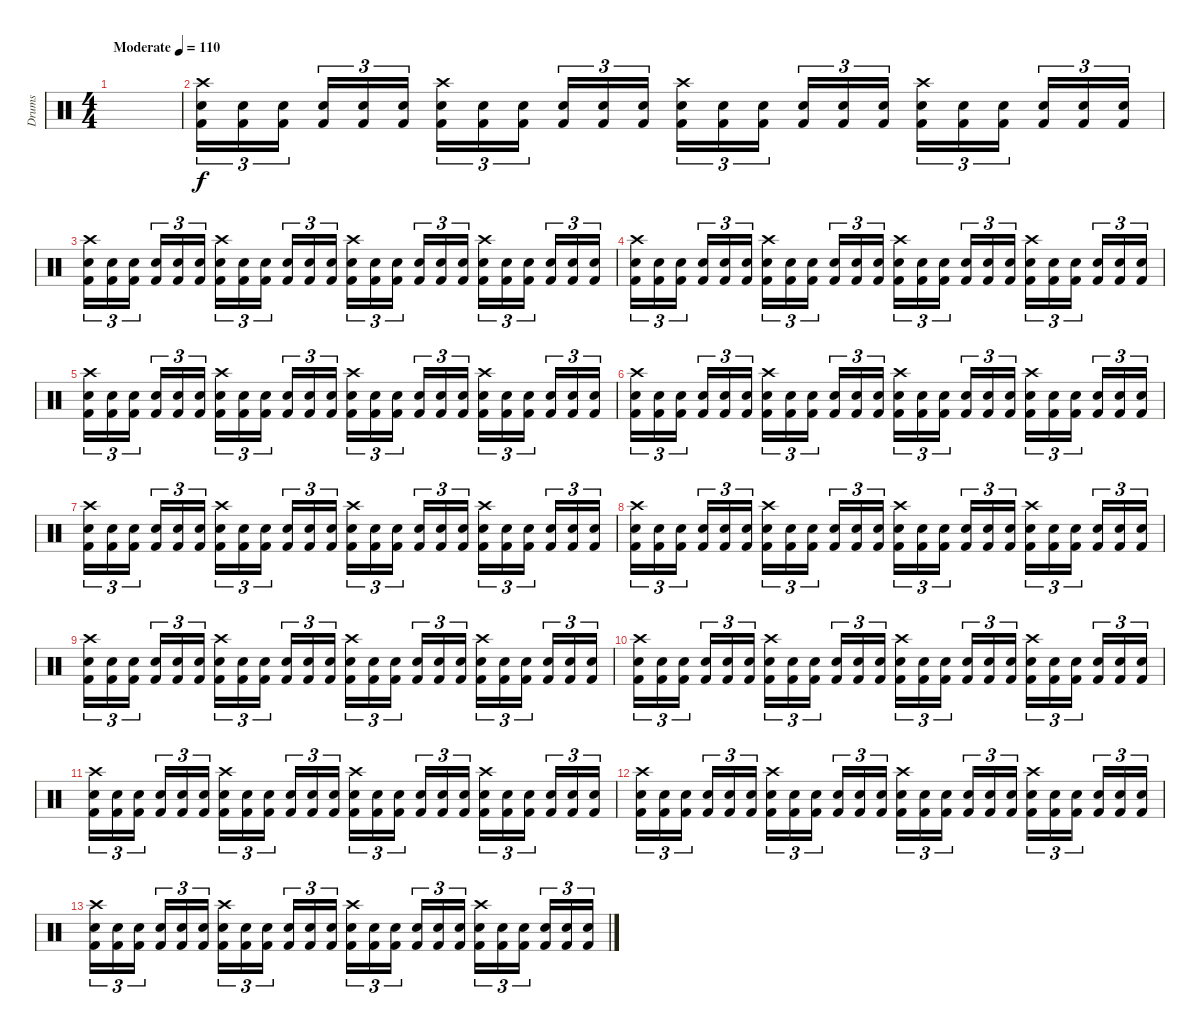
\track ("Drums" "Drums") {instrument percussion}
\staff {score}
\articulation defaults
\ts (4 4)
\tempo (110 "Moderate")
\clef neutral
\ks c
|
("Crash high (hit)" "Electric Snare (hit)" "Kick (hit) 2").16{tu (3 2)} ("Electric Snare (hit)" "Kick (hit) 2").16{tu (3 2)} ("Electric Snare (hit)" "Kick (hit) 2").16{tu (3 2) beam splitsecondary} ("Electric Snare (hit)" "Kick (hit) 2").16{tu (3 2)} ("Electric Snare (hit)" "Kick (hit) 2").16{tu (3 2)} ("Electric Snare (hit)" "Kick (hit) 2").16{tu (3 2)} ("Crash high (hit)" "Electric Snare (hit)" "Kick (hit) 2").16{tu (3 2)} ("Electric Snare (hit)" "Kick (hit) 2").16{tu (3 2)} ("Electric Snare (hit)" "Kick (hit) 2").16{tu (3 2) beam splitsecondary} ("Electric Snare (hit)" "Kick (hit) 2").16{tu (3 2)} ("Electric Snare (hit)" "Kick (hit) 2").16{tu (3 2)} ("Electric Snare (hit)" "Kick (hit) 2").16{tu (3 2)} ("Crash high (hit)" "Electric Snare (hit)" "Kick (hit) 2").16{tu (3 2)} ("Electric Snare (hit)" "Kick (hit) 2").16{tu (3 2)} ("Electric Snare (hit)" "Kick (hit) 2").16{tu (3 2) beam splitsecondary} ("Electric Snare (hit)" "Kick (hit) 2").16{tu (3 2)} ("Electric Snare (hit)" "Kick (hit) 2").16{tu (3 2)} ("Electric Snare (hit)" "Kick (hit) 2").16{tu (3 2)} ("Crash high (hit)" "Electric Snare (hit)" "Kick (hit) 2").16{tu (3 2)} ("Electric Snare (hit)" "Kick (hit) 2").16{tu (3 2)} ("Electric Snare (hit)" "Kick (hit) 2").16{tu (3 2) beam splitsecondary} ("Electric Snare (hit)" "Kick (hit) 2").16{tu (3 2)} ("Electric Snare (hit)" "Kick (hit) 2").16{tu (3 2)} ("Electric Snare (hit)" "Kick (hit) 2").16{tu (3 2)} |
("Crash high (hit)" "Electric Snare (hit)" "Kick (hit) 2").16{tu (3 2)} ("Electric Snare (hit)" "Kick (hit) 2").16{tu (3 2)} ("Electric Snare (hit)" "Kick (hit) 2").16{tu (3 2) beam splitsecondary} ("Electric Snare (hit)" "Kick (hit) 2").16{tu (3 2)} ("Electric Snare (hit)" "Kick (hit) 2").16{tu (3 2)} ("Electric Snare (hit)" "Kick (hit) 2").16{tu (3 2)} ("Crash high (hit)" "Electric Snare (hit)" "Kick (hit) 2").16{tu (3 2)} ("Electric Snare (hit)" "Kick (hit) 2").16{tu (3 2)} ("Electric Snare (hit)" "Kick (hit) 2").16{tu (3 2) beam splitsecondary} ("Electric Snare (hit)" "Kick (hit) 2").16{tu (3 2)} ("Electric Snare (hit)" "Kick (hit) 2").16{tu (3 2)} ("Electric Snare (hit)" "Kick (hit) 2").16{tu (3 2)} ("Crash high (hit)" "Electric Snare (hit)" "Kick (hit) 2").16{tu (3 2)} ("Electric Snare (hit)" "Kick (hit) 2").16{tu (3 2)} ("Electric Snare (hit)" "Kick (hit) 2").16{tu (3 2) beam splitsecondary} ("Electric Snare (hit)" "Kick (hit) 2").16{tu (3 2)} ("Electric Snare (hit)" "Kick (hit) 2").16{tu (3 2)} ("Electric Snare (hit)" "Kick (hit) 2").16{tu (3 2)} ("Crash high (hit)" "Electric Snare (hit)" "Kick (hit) 2").16{tu (3 2)} ("Electric Snare (hit)" "Kick (hit) 2").16{tu (3 2)} ("Electric Snare (hit)" "Kick (hit) 2").16{tu (3 2) beam splitsecondary} ("Electric Snare (hit)" "Kick (hit) 2").16{tu (3 2)} ("Electric Snare (hit)" "Kick (hit) 2").16{tu (3 2)} ("Electric Snare (hit)" "Kick (hit) 2").16{tu (3 2)} |
("Crash high (hit)" "Electric Snare (hit)" "Kick (hit) 2").16{tu (3 2)} ("Electric Snare (hit)" "Kick (hit) 2").16{tu (3 2)} ("Electric Snare (hit)" "Kick (hit) 2").16{tu (3 2) beam splitsecondary} ("Electric Snare (hit)" "Kick (hit) 2").16{tu (3 2)} ("Electric Snare (hit)" "Kick (hit) 2").16{tu (3 2)} ("Electric Snare (hit)" "Kick (hit) 2").16{tu (3 2)} ("Crash high (hit)" "Electric Snare (hit)" "Kick (hit) 2").16{tu (3 2)} ("Electric Snare (hit)" "Kick (hit) 2").16{tu (3 2)} ("Electric Snare (hit)" "Kick (hit) 2").16{tu (3 2) beam splitsecondary} ("Electric Snare (hit)" "Kick (hit) 2").16{tu (3 2)} ("Electric Snare (hit)" "Kick (hit) 2").16{tu (3 2)} ("Electric Snare (hit)" "Kick (hit) 2").16{tu (3 2)} ("Crash high (hit)" "Electric Snare (hit)" "Kick (hit) 2").16{tu (3 2)} ("Electric Snare (hit)" "Kick (hit) 2").16{tu (3 2)} ("Electric Snare (hit)" "Kick (hit) 2").16{tu (3 2) beam splitsecondary} ("Electric Snare (hit)" "Kick (hit) 2").16{tu (3 2)} ("Electric Snare (hit)" "Kick (hit) 2").16{tu (3 2)} ("Electric Snare (hit)" "Kick (hit) 2").16{tu (3 2)} ("Crash high (hit)" "Electric Snare (hit)" "Kick (hit) 2").16{tu (3 2)} ("Electric Snare (hit)" "Kick (hit) 2").16{tu (3 2)} ("Electric Snare (hit)" "Kick (hit) 2").16{tu (3 2) beam splitsecondary} ("Electric Snare (hit)" "Kick (hit) 2").16{tu (3 2)} ("Electric Snare (hit)" "Kick (hit) 2").16{tu (3 2)} ("Electric Snare (hit)" "Kick (hit) 2").16{tu (3 2)} |
("Crash high (hit)" "Electric Snare (hit)" "Kick (hit) 2").16{tu (3 2)} ("Electric Snare (hit)" "Kick (hit) 2").16{tu (3 2)} ("Electric Snare (hit)" "Kick (hit) 2").16{tu (3 2) beam splitsecondary} ("Electric Snare (hit)" "Kick (hit) 2").16{tu (3 2)} ("Electric Snare (hit)" "Kick (hit) 2").16{tu (3 2)} ("Electric Snare (hit)" "Kick (hit) 2").16{tu (3 2)} ("Crash high (hit)" "Electric Snare (hit)" "Kick (hit) 2").16{tu (3 2)} ("Electric Snare (hit)" "Kick (hit) 2").16{tu (3 2)} ("Electric Snare (hit)" "Kick (hit) 2").16{tu (3 2) beam splitsecondary} ("Electric Snare (hit)" "Kick (hit) 2").16{tu (3 2)} ("Electric Snare (hit)" "Kick (hit) 2").16{tu (3 2)} ("Electric Snare (hit)" "Kick (hit) 2").16{tu (3 2)} ("Crash high (hit)" "Electric Snare (hit)" "Kick (hit) 2").16{tu (3 2)} ("Electric Snare (hit)" "Kick (hit) 2").16{tu (3 2)} ("Electric Snare (hit)" "Kick (hit) 2").16{tu (3 2) beam splitsecondary} ("Electric Snare (hit)" "Kick (hit) 2").16{tu (3 2)} ("Electric Snare (hit)" "Kick (hit) 2").16{tu (3 2)} ("Electric Snare (hit)" "Kick (hit) 2").16{tu (3 2)} ("Crash high (hit)" "Electric Snare (hit)" "Kick (hit) 2").16{tu (3 2)} ("Electric Snare (hit)" "Kick (hit) 2").16{tu (3 2)} ("Electric Snare (hit)" "Kick (hit) 2").16{tu (3 2) beam splitsecondary} ("Electric Snare (hit)" "Kick (hit) 2").16{tu (3 2)} ("Electric Snare (hit)" "Kick (hit) 2").16{tu (3 2)} ("Electric Snare (hit)" "Kick (hit) 2").16{tu (3 2)} |
("Crash high (hit)" "Electric Snare (hit)" "Kick (hit) 2").16{tu (3 2)} ("Electric Snare (hit)" "Kick (hit) 2").16{tu (3 2)} ("Electric Snare (hit)" "Kick (hit) 2").16{tu (3 2) beam splitsecondary} ("Electric Snare (hit)" "Kick (hit) 2").16{tu (3 2)} ("Electric Snare (hit)" "Kick (hit) 2").16{tu (3 2)} ("Electric Snare (hit)" "Kick (hit) 2").16{tu (3 2)} ("Crash high (hit)" "Electric Snare (hit)" "Kick (hit) 2").16{tu (3 2)} ("Electric Snare (hit)" "Kick (hit) 2").16{tu (3 2)} ("Electric Snare (hit)" "Kick (hit) 2").16{tu (3 2) beam splitsecondary} ("Electric Snare (hit)" "Kick (hit) 2").16{tu (3 2)} ("Electric Snare (hit)" "Kick (hit) 2").16{tu (3 2)} ("Electric Snare (hit)" "Kick (hit) 2").16{tu (3 2)} ("Crash high (hit)" "Electric Snare (hit)" "Kick (hit) 2").16{tu (3 2)} ("Electric Snare (hit)" "Kick (hit) 2").16{tu (3 2)} ("Electric Snare (hit)" "Kick (hit) 2").16{tu (3 2) beam splitsecondary} ("Electric Snare (hit)" "Kick (hit) 2").16{tu (3 2)} ("Electric Snare (hit)" "Kick (hit) 2").16{tu (3 2)} ("Electric Snare (hit)" "Kick (hit) 2").16{tu (3 2)} ("Crash high (hit)" "Electric Snare (hit)" "Kick (hit) 2").16{tu (3 2)} ("Electric Snare (hit)" "Kick (hit) 2").16{tu (3 2)} ("Electric Snare (hit)" "Kick (hit) 2").16{tu (3 2) beam splitsecondary} ("Electric Snare (hit)" "Kick (hit) 2").16{tu (3 2)} ("Electric Snare (hit)" "Kick (hit) 2").16{tu (3 2)} ("Electric Snare (hit)" "Kick (hit) 2").16{tu (3 2)} |
("Crash high (hit)" "Electric Snare (hit)" "Kick (hit) 2").16{tu (3 2)} ("Electric Snare (hit)" "Kick (hit) 2").16{tu (3 2)} ("Electric Snare (hit)" "Kick (hit) 2").16{tu (3 2) beam splitsecondary} ("Electric Snare (hit)" "Kick (hit) 2").16{tu (3 2)} ("Electric Snare (hit)" "Kick (hit) 2").16{tu (3 2)} ("Electric Snare (hit)" "Kick (hit) 2").16{tu (3 2)} ("Crash high (hit)" "Electric Snare (hit)" "Kick (hit) 2").16{tu (3 2)} ("Electric Snare (hit)" "Kick (hit) 2").16{tu (3 2)} ("Electric Snare (hit)" "Kick (hit) 2").16{tu (3 2) beam splitsecondary} ("Electric Snare (hit)" "Kick (hit) 2").16{tu (3 2)} ("Electric Snare (hit)" "Kick (hit) 2").16{tu (3 2)} ("Electric Snare (hit)" "Kick (hit) 2").16{tu (3 2)} ("Crash high (hit)" "Electric Snare (hit)" "Kick (hit) 2").16{tu (3 2)} ("Electric Snare (hit)" "Kick (hit) 2").16{tu (3 2)} ("Electric Snare (hit)" "Kick (hit) 2").16{tu (3 2) beam splitsecondary} ("Electric Snare (hit)" "Kick (hit) 2").16{tu (3 2)} ("Electric Snare (hit)" "Kick (hit) 2").16{tu (3 2)} ("Electric Snare (hit)" "Kick (hit) 2").16{tu (3 2)} ("Crash high (hit)" "Electric Snare (hit)" "Kick (hit) 2").16{tu (3 2)} ("Electric Snare (hit)" "Kick (hit) 2").16{tu (3 2)} ("Electric Snare (hit)" "Kick (hit) 2").16{tu (3 2) beam splitsecondary} ("Electric Snare (hit)" "Kick (hit) 2").16{tu (3 2)} ("Electric Snare (hit)" "Kick (hit) 2").16{tu (3 2)} ("Electric Snare (hit)" "Kick (hit) 2").16{tu (3 2)} |
("Crash high (hit)" "Electric Snare (hit)" "Kick (hit) 2").16{tu (3 2)} ("Electric Snare (hit)" "Kick (hit) 2").16{tu (3 2)} ("Electric Snare (hit)" "Kick (hit) 2").16{tu (3 2) beam splitsecondary} ("Electric Snare (hit)" "Kick (hit) 2").16{tu (3 2)} ("Electric Snare (hit)" "Kick (hit) 2").16{tu (3 2)} ("Electric Snare (hit)" "Kick (hit) 2").16{tu (3 2)} ("Crash high (hit)" "Electric Snare (hit)" "Kick (hit) 2").16{tu (3 2)} ("Electric Snare (hit)" "Kick (hit) 2").16{tu (3 2)} ("Electric Snare (hit)" "Kick (hit) 2").16{tu (3 2) beam splitsecondary} ("Electric Snare (hit)" "Kick (hit) 2").16{tu (3 2)} ("Electric Snare (hit)" "Kick (hit) 2").16{tu (3 2)} ("Electric Snare (hit)" "Kick (hit) 2").16{tu (3 2)} ("Crash high (hit)" "Electric Snare (hit)" "Kick (hit) 2").16{tu (3 2)} ("Electric Snare (hit)" "Kick (hit) 2").16{tu (3 2)} ("Electric Snare (hit)" "Kick (hit) 2").16{tu (3 2) beam splitsecondary} ("Electric Snare (hit)" "Kick (hit) 2").16{tu (3 2)} ("Electric Snare (hit)" "Kick (hit) 2").16{tu (3 2)} ("Electric Snare (hit)" "Kick (hit) 2").16{tu (3 2)} ("Crash high (hit)" "Electric Snare (hit)" "Kick (hit) 2").16{tu (3 2)} ("Electric Snare (hit)" "Kick (hit) 2").16{tu (3 2)} ("Electric Snare (hit)" "Kick (hit) 2").16{tu (3 2) beam splitsecondary} ("Electric Snare (hit)" "Kick (hit) 2").16{tu (3 2)} ("Electric Snare (hit)" "Kick (hit) 2").16{tu (3 2)} ("Electric Snare (hit)" "Kick (hit) 2").16{tu (3 2)} |
("Crash high (hit)" "Electric Snare (hit)" "Kick (hit) 2").16{tu (3 2)} ("Electric Snare (hit)" "Kick (hit) 2").16{tu (3 2)} ("Electric Snare (hit)" "Kick (hit) 2").16{tu (3 2) beam splitsecondary} ("Electric Snare (hit)" "Kick (hit) 2").16{tu (3 2)} ("Electric Snare (hit)" "Kick (hit) 2").16{tu (3 2)} ("Electric Snare (hit)" "Kick (hit) 2").16{tu (3 2)} ("Crash high (hit)" "Electric Snare (hit)" "Kick (hit) 2").16{tu (3 2)} ("Electric Snare (hit)" "Kick (hit) 2").16{tu (3 2)} ("Electric Snare (hit)" "Kick (hit) 2").16{tu (3 2) beam splitsecondary} ("Electric Snare (hit)" "Kick (hit) 2").16{tu (3 2)} ("Electric Snare (hit)" "Kick (hit) 2").16{tu (3 2)} ("Electric Snare (hit)" "Kick (hit) 2").16{tu (3 2)} ("Crash high (hit)" "Electric Snare (hit)" "Kick (hit) 2").16{tu (3 2)} ("Electric Snare (hit)" "Kick (hit) 2").16{tu (3 2)} ("Electric Snare (hit)" "Kick (hit) 2").16{tu (3 2) beam splitsecondary} ("Electric Snare (hit)" "Kick (hit) 2").16{tu (3 2)} ("Electric Snare (hit)" "Kick (hit) 2").16{tu (3 2)} ("Electric Snare (hit)" "Kick (hit) 2").16{tu (3 2)} ("Crash high (hit)" "Electric Snare (hit)" "Kick (hit) 2").16{tu (3 2)} ("Electric Snare (hit)" "Kick (hit) 2").16{tu (3 2)} ("Electric Snare (hit)" "Kick (hit) 2").16{tu (3 2) beam splitsecondary} ("Electric Snare (hit)" "Kick (hit) 2").16{tu (3 2)} ("Electric Snare (hit)" "Kick (hit) 2").16{tu (3 2)} ("Electric Snare (hit)" "Kick (hit) 2").16{tu (3 2)} |
("Crash high (hit)" "Electric Snare (hit)" "Kick (hit) 2").16{tu (3 2)} ("Electric Snare (hit)" "Kick (hit) 2").16{tu (3 2)} ("Electric Snare (hit)" "Kick (hit) 2").16{tu (3 2) beam splitsecondary} ("Electric Snare (hit)" "Kick (hit) 2").16{tu (3 2)} ("Electric Snare (hit)" "Kick (hit) 2").16{tu (3 2)} ("Electric Snare (hit)" "Kick (hit) 2").16{tu (3 2)} ("Crash high (hit)" "Electric Snare (hit)" "Kick (hit) 2").16{tu (3 2)} ("Electric Snare (hit)" "Kick (hit) 2").16{tu (3 2)} ("Electric Snare (hit)" "Kick (hit) 2").16{tu (3 2) beam splitsecondary} ("Electric Snare (hit)" "Kick (hit) 2").16{tu (3 2)} ("Electric Snare (hit)" "Kick (hit) 2").16{tu (3 2)} ("Electric Snare (hit)" "Kick (hit) 2").16{tu (3 2)} ("Crash high (hit)" "Electric Snare (hit)" "Kick (hit) 2").16{tu (3 2)} ("Electric Snare (hit)" "Kick (hit) 2").16{tu (3 2)} ("Electric Snare (hit)" "Kick (hit) 2").16{tu (3 2) beam splitsecondary} ("Electric Snare (hit)" "Kick (hit) 2").16{tu (3 2)} ("Electric Snare (hit)" "Kick (hit) 2").16{tu (3 2)} ("Electric Snare (hit)" "Kick (hit) 2").16{tu (3 2)} ("Crash high (hit)" "Electric Snare (hit)" "Kick (hit) 2").16{tu (3 2)} ("Electric Snare (hit)" "Kick (hit) 2").16{tu (3 2)} ("Electric Snare (hit)" "Kick (hit) 2").16{tu (3 2) beam splitsecondary} ("Electric Snare (hit)" "Kick (hit) 2").16{tu (3 2)} ("Electric Snare (hit)" "Kick (hit) 2").16{tu (3 2)} ("Electric Snare (hit)" "Kick (hit) 2").16{tu (3 2)} |
("Crash high (hit)" "Electric Snare (hit)" "Kick (hit) 2").16{tu (3 2)} ("Electric Snare (hit)" "Kick (hit) 2").16{tu (3 2)} ("Electric Snare (hit)" "Kick (hit) 2").16{tu (3 2) beam splitsecondary} ("Electric Snare (hit)" "Kick (hit) 2").16{tu (3 2)} ("Electric Snare (hit)" "Kick (hit) 2").16{tu (3 2)} ("Electric Snare (hit)" "Kick (hit) 2").16{tu (3 2)} ("Crash high (hit)" "Electric Snare (hit)" "Kick (hit) 2").16{tu (3 2)} ("Electric Snare (hit)" "Kick (hit) 2").16{tu (3 2)} ("Electric Snare (hit)" "Kick (hit) 2").16{tu (3 2) beam splitsecondary} ("Electric Snare (hit)" "Kick (hit) 2").16{tu (3 2)} ("Electric Snare (hit)" "Kick (hit) 2").16{tu (3 2)} ("Electric Snare (hit)" "Kick (hit) 2").16{tu (3 2)} ("Crash high (hit)" "Electric Snare (hit)" "Kick (hit) 2").16{tu (3 2)} ("Electric Snare (hit)" "Kick (hit) 2").16{tu (3 2)} ("Electric Snare (hit)" "Kick (hit) 2").16{tu (3 2) beam splitsecondary} ("Electric Snare (hit)" "Kick (hit) 2").16{tu (3 2)} ("Electric Snare (hit)" "Kick (hit) 2").16{tu (3 2)} ("Electric Snare (hit)" "Kick (hit) 2").16{tu (3 2)} ("Crash high (hit)" "Electric Snare (hit)" "Kick (hit) 2").16{tu (3 2)} ("Electric Snare (hit)" "Kick (hit) 2").16{tu (3 2)} ("Electric Snare (hit)" "Kick (hit) 2").16{tu (3 2) beam splitsecondary} ("Electric Snare (hit)" "Kick (hit) 2").16{tu (3 2)} ("Electric Snare (hit)" "Kick (hit) 2").16{tu (3 2)} ("Electric Snare (hit)" "Kick (hit) 2").16{tu (3 2)} |
("Crash high (hit)" "Electric Snare (hit)" "Kick (hit) 2").16{tu (3 2)} ("Electric Snare (hit)" "Kick (hit) 2").16{tu (3 2)} ("Electric Snare (hit)" "Kick (hit) 2").16{tu (3 2) beam splitsecondary} ("Electric Snare (hit)" "Kick (hit) 2").16{tu (3 2)} ("Electric Snare (hit)" "Kick (hit) 2").16{tu (3 2)} ("Electric Snare (hit)" "Kick (hit) 2").16{tu (3 2)} ("Crash high (hit)" "Electric Snare (hit)" "Kick (hit) 2").16{tu (3 2)} ("Electric Snare (hit)" "Kick (hit) 2").16{tu (3 2)} ("Electric Snare (hit)" "Kick (hit) 2").16{tu (3 2) beam splitsecondary} ("Electric Snare (hit)" "Kick (hit) 2").16{tu (3 2)} ("Electric Snare (hit)" "Kick (hit) 2").16{tu (3 2)} ("Electric Snare (hit)" "Kick (hit) 2").16{tu (3 2)} ("Crash high (hit)" "Electric Snare (hit)" "Kick (hit) 2").16{tu (3 2)} ("Electric Snare (hit)" "Kick (hit) 2").16{tu (3 2)} ("Electric Snare (hit)" "Kick (hit) 2").16{tu (3 2) beam splitsecondary} ("Electric Snare (hit)" "Kick (hit) 2").16{tu (3 2)} ("Electric Snare (hit)" "Kick (hit) 2").16{tu (3 2)} ("Electric Snare (hit)" "Kick (hit) 2").16{tu (3 2)} ("Crash high (hit)" "Electric Snare (hit)" "Kick (hit) 2").16{tu (3 2)} ("Electric Snare (hit)" "Kick (hit) 2").16{tu (3 2)} ("Electric Snare (hit)" "Kick (hit) 2").16{tu (3 2) beam splitsecondary} ("Electric Snare (hit)" "Kick (hit) 2").16{tu (3 2)} ("Electric Snare (hit)" "Kick (hit) 2").16{tu (3 2)} ("Electric Snare (hit)" "Kick (hit) 2").16{tu (3 2)} |
("Crash high (hit)" "Electric Snare (hit)" "Kick (hit) 2").16{tu (3 2)} ("Electric Snare (hit)" "Kick (hit) 2").16{tu (3 2)} ("Electric Snare (hit)" "Kick (hit) 2").16{tu (3 2) beam splitsecondary} ("Electric Snare (hit)" "Kick (hit) 2").16{tu (3 2)} ("Electric Snare (hit)" "Kick (hit) 2").16{tu (3 2)} ("Electric Snare (hit)" "Kick (hit) 2").16{tu (3 2)} ("Crash high (hit)" "Electric Snare (hit)" "Kick (hit) 2").16{tu (3 2)} ("Electric Snare (hit)" "Kick (hit) 2").16{tu (3 2)} ("Electric Snare (hit)" "Kick (hit) 2").16{tu (3 2) beam splitsecondary} ("Electric Snare (hit)" "Kick (hit) 2").16{tu (3 2)} ("Electric Snare (hit)" "Kick (hit) 2").16{tu (3 2)} ("Electric Snare (hit)" "Kick (hit) 2").16{tu (3 2)} ("Crash high (hit)" "Electric Snare (hit)" "Kick (hit) 2").16{tu (3 2)} ("Electric Snare (hit)" "Kick (hit) 2").16{tu (3 2)} ("Electric Snare (hit)" "Kick (hit) 2").16{tu (3 2) beam splitsecondary} ("Electric Snare (hit)" "Kick (hit) 2").16{tu (3 2)} ("Electric Snare (hit)" "Kick (hit) 2").16{tu (3 2)} ("Electric Snare (hit)" "Kick (hit) 2").16{tu (3 2)} ("Crash high (hit)" "Electric Snare (hit)" "Kick (hit) 2").16{tu (3 2)} ("Electric Snare (hit)" "Kick (hit) 2").16{tu (3 2)} ("Electric Snare (hit)" "Kick (hit) 2").16{tu (3 2) beam splitsecondary} ("Electric Snare (hit)" "Kick (hit) 2").16{tu (3 2)} ("Electric Snare (hit)" "Kick (hit) 2").16{tu (3 2)} ("Electric Snare (hit)" "Kick (hit) 2").16{tu (3 2)}
